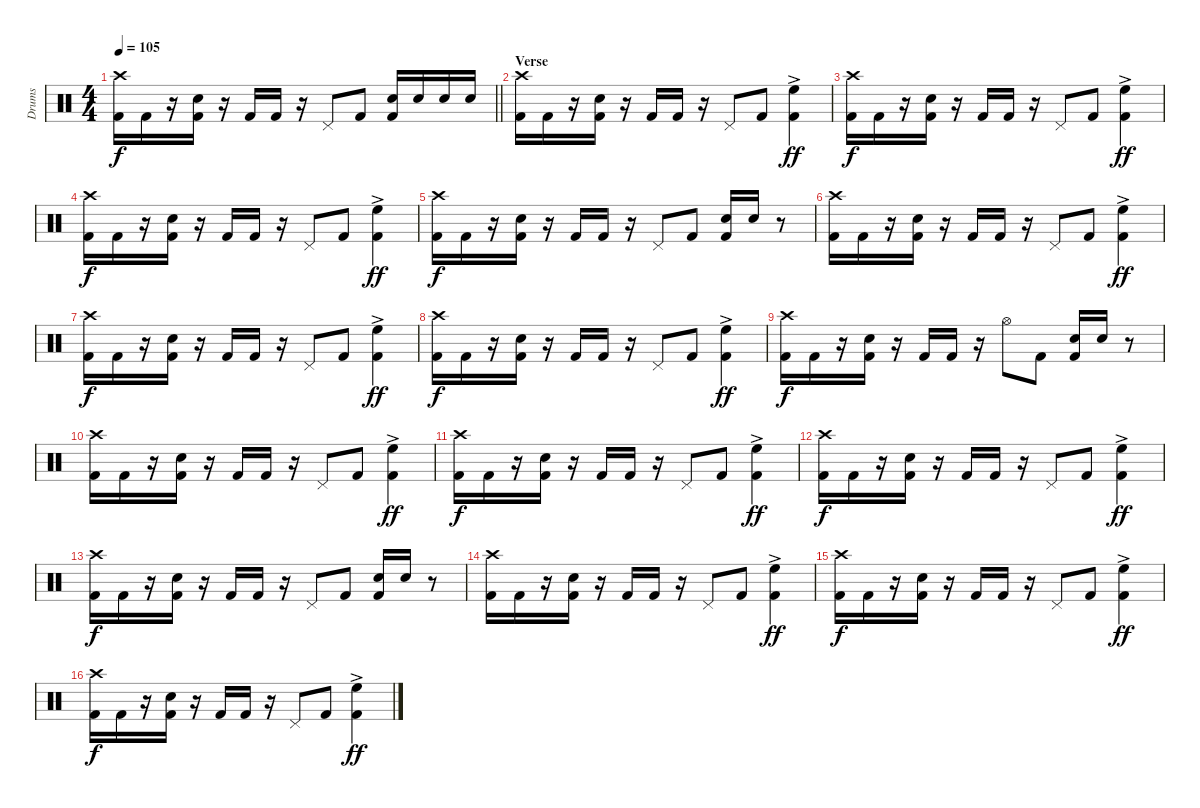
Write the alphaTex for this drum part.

\track ("Drums" "Drums") {instrument percussion}
\staff {score}
\articulation defaults
\ts (4 4)
\tempo 105
\clef neutral
\barLineRight lightlight
\ks aminor
("Crash high (hit)" "Kick (hit) 2").16{dy f} "Kick (hit) 2".16 r.16 ("Snare (hit) 2" "Kick (hit) 2").16 r.16 "Kick (hit) 2".16 "Kick (hit) 2".16 r.16 "Pedal Hi-Hat (hit)".8 "Kick (hit) 2".8 ("Snare (hit) 2" "Kick (hit) 2").16 "Snare (hit) 2".16 "Snare (hit) 2".16 "Snare (hit) 2".16 |
\section ("" "Verse")
("Crash high (hit)" "Kick (hit) 2").16 "Kick (hit) 2".16 r.16 ("Snare (hit) 2" "Kick (hit) 2").16 r.16 "Kick (hit) 2".16 "Kick (hit) 2".16 r.16 "Pedal Hi-Hat (hit)".8 "Kick (hit) 2".8 ("High Floor Tom (hit)"{ac} "Kick (hit) 2").4{dy ff} |
("Crash high (hit)" "Kick (hit) 2").16{dy f} "Kick (hit) 2".16 r.16 ("Snare (hit) 2" "Kick (hit) 2").16 r.16 "Kick (hit) 2".16 "Kick (hit) 2".16 r.16 "Pedal Hi-Hat (hit)".8 "Kick (hit) 2".8 ("High Floor Tom (hit)"{ac} "Kick (hit) 2").4{dy ff} |
("Crash high (hit)" "Kick (hit) 2").16{dy f} "Kick (hit) 2".16 r.16 ("Snare (hit) 2" "Kick (hit) 2").16 r.16 "Kick (hit) 2".16 "Kick (hit) 2".16 r.16 "Pedal Hi-Hat (hit)".8 "Kick (hit) 2".8 ("High Floor Tom (hit)"{ac} "Kick (hit) 2").4{dy ff} |
("Crash high (hit)" "Kick (hit) 2").16{dy f} "Kick (hit) 2".16 r.16 ("Snare (hit) 2" "Kick (hit) 2").16 r.16 "Kick (hit) 2".16 "Kick (hit) 2".16 r.16 "Pedal Hi-Hat (hit)".8 "Kick (hit) 2".8 ("Snare (hit) 2" "Kick (hit) 2").16 "Snare (hit) 2".16 r.8 |
("Crash high (hit)" "Kick (hit) 2").16 "Kick (hit) 2".16 r.16 ("Snare (hit) 2" "Kick (hit) 2").16 r.16 "Kick (hit) 2".16 "Kick (hit) 2".16 r.16 "Pedal Hi-Hat (hit)".8 "Kick (hit) 2".8 ("High Floor Tom (hit)"{ac} "Kick (hit) 2").4{dy ff} |
("Crash high (hit)" "Kick (hit) 2").16{dy f} "Kick (hit) 2".16 r.16 ("Snare (hit) 2" "Kick (hit) 2").16 r.16 "Kick (hit) 2".16 "Kick (hit) 2".16 r.16 "Pedal Hi-Hat (hit)".8 "Kick (hit) 2".8 ("High Floor Tom (hit)"{ac} "Kick (hit) 2").4{dy ff} |
("Crash high (hit)" "Kick (hit) 2").16{dy f} "Kick (hit) 2".16 r.16 ("Snare (hit) 2" "Kick (hit) 2").16 r.16 "Kick (hit) 2".16 "Kick (hit) 2".16 r.16 "Pedal Hi-Hat (hit)".8 "Kick (hit) 2".8 ("High Floor Tom (hit)"{ac} "Kick (hit) 2").4{dy ff} |
("Crash high (hit)" "Kick (hit) 2").16{dy f} "Kick (hit) 2".16 r.16 ("Snare (hit) 2" "Kick (hit) 2").16 r.16 "Kick (hit) 2".16 "Kick (hit) 2".16 r.16 "Hi-Hat (open)".8 "Kick (hit) 2".8 ("Snare (hit) 2" "Kick (hit) 2").16 "Snare (hit) 2".16 r.8 |
("Crash high (hit)" "Kick (hit) 2").16 "Kick (hit) 2".16 r.16 ("Snare (hit) 2" "Kick (hit) 2").16 r.16 "Kick (hit) 2".16 "Kick (hit) 2".16 r.16 "Pedal Hi-Hat (hit)".8 "Kick (hit) 2".8 ("High Floor Tom (hit)"{ac} "Kick (hit) 2").4{dy ff} |
("Crash high (hit)" "Kick (hit) 2").16{dy f} "Kick (hit) 2".16 r.16 ("Snare (hit) 2" "Kick (hit) 2").16 r.16 "Kick (hit) 2".16 "Kick (hit) 2".16 r.16 "Pedal Hi-Hat (hit)".8 "Kick (hit) 2".8 ("High Floor Tom (hit)"{ac} "Kick (hit) 2").4{dy ff} |
("Crash high (hit)" "Kick (hit) 2").16{dy f} "Kick (hit) 2".16 r.16 ("Snare (hit) 2" "Kick (hit) 2").16 r.16 "Kick (hit) 2".16 "Kick (hit) 2".16 r.16 "Pedal Hi-Hat (hit)".8 "Kick (hit) 2".8 ("High Floor Tom (hit)"{ac} "Kick (hit) 2").4{dy ff} |
("Crash high (hit)" "Kick (hit) 2").16{dy f} "Kick (hit) 2".16 r.16 ("Snare (hit) 2" "Kick (hit) 2").16 r.16 "Kick (hit) 2".16 "Kick (hit) 2".16 r.16 "Pedal Hi-Hat (hit)".8 "Kick (hit) 2".8 ("Snare (hit) 2" "Kick (hit) 2").16 "Snare (hit) 2".16 r.8 |
("Crash high (hit)" "Kick (hit) 2").16 "Kick (hit) 2".16 r.16 ("Snare (hit) 2" "Kick (hit) 2").16 r.16 "Kick (hit) 2".16 "Kick (hit) 2".16 r.16 "Pedal Hi-Hat (hit)".8 "Kick (hit) 2".8 ("High Floor Tom (hit)"{ac} "Kick (hit) 2").4{dy ff} |
("Crash high (hit)" "Kick (hit) 2").16{dy f} "Kick (hit) 2".16 r.16 ("Snare (hit) 2" "Kick (hit) 2").16 r.16 "Kick (hit) 2".16 "Kick (hit) 2".16 r.16 "Pedal Hi-Hat (hit)".8 "Kick (hit) 2".8 ("High Floor Tom (hit)"{ac} "Kick (hit) 2").4{dy ff} |
("Crash high (hit)" "Kick (hit) 2").16{dy f} "Kick (hit) 2".16 r.16 ("Snare (hit) 2" "Kick (hit) 2").16 r.16 "Kick (hit) 2".16 "Kick (hit) 2".16 r.16 "Pedal Hi-Hat (hit)".8 "Kick (hit) 2".8 ("High Floor Tom (hit)"{ac} "Kick (hit) 2").4{dy ff}
